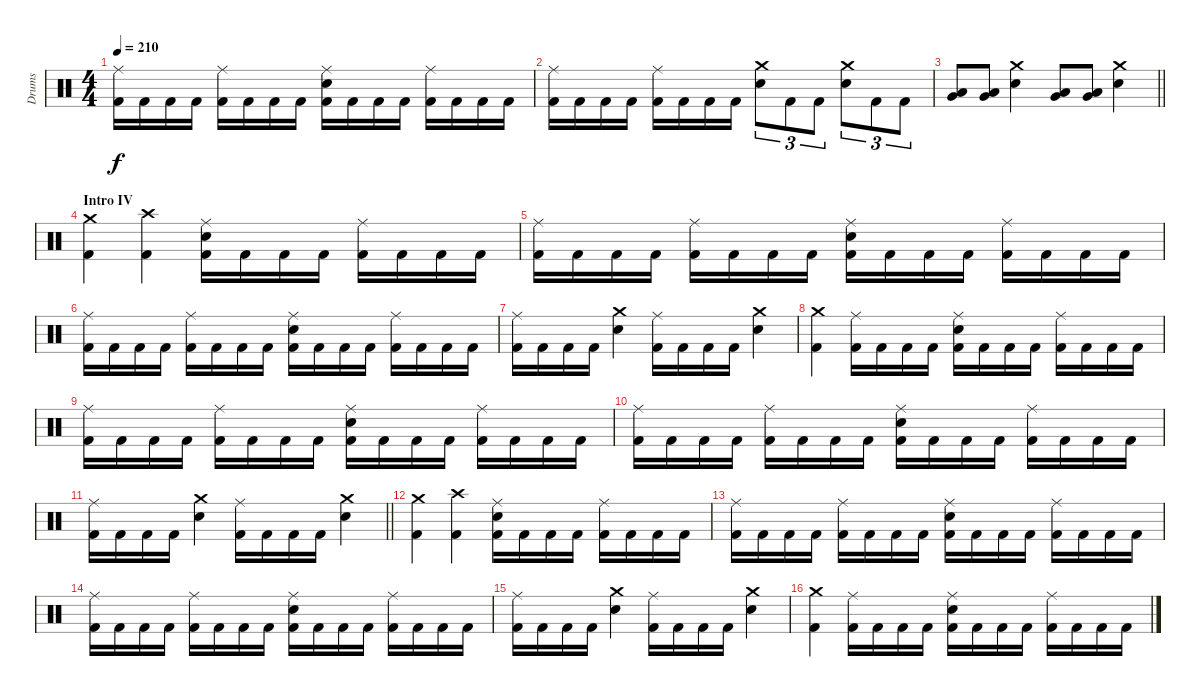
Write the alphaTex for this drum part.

\track ("Drums" "Drums") {instrument percussion}
\staff {score}
\articulation defaults
\ts (4 4)
\tempo 210
\clef neutral
\ks c
("Ride (middle)" "Kick (hit) 2").16{dy f} "Kick (hit) 2".16 "Kick (hit) 2".16 "Kick (hit) 2".16 ("Ride (middle)" "Kick (hit) 2").16 "Kick (hit) 2".16 "Kick (hit) 2".16 "Kick (hit) 2".16 ("Ride (middle)" "Snare (hit) 2" "Kick (hit) 2").16 "Kick (hit) 2".16 "Kick (hit) 2".16 "Kick (hit) 2".16 ("Ride (middle)" "Kick (hit) 2").16 "Kick (hit) 2".16 "Kick (hit) 2".16 "Kick (hit) 2".16 |
("Ride (middle)" "Kick (hit) 2").16 "Kick (hit) 2".16 "Kick (hit) 2".16 "Kick (hit) 2".16 ("Ride (middle)" "Kick (hit) 2").16 "Kick (hit) 2".16 "Kick (hit) 2".16 "Kick (hit) 2".16 ("Crash medium (hit)" "Snare (hit) 2").8{tu (3 2)} "Kick (hit) 2".8{tu (3 2)} "Kick (hit) 2".8{tu (3 2)} ("Crash medium (hit)" "Snare (hit) 2").8{tu (3 2)} "Kick (hit) 2".8{tu (3 2)} "Kick (hit) 2".8{tu (3 2)} |
\barLineRight lightlight
("Very Low Tom (hit)" "Low Tom (hit)").8 ("Very Low Tom (hit)" "Low Tom (hit)").8 ("Crash medium (hit)" "Snare (hit) 2").4 ("Very Low Tom (hit)" "Low Tom (hit)").8 ("Very Low Tom (hit)" "Low Tom (hit)").8 ("Crash medium (hit)" "Snare (hit) 2").4 |
\section ("" "Intro IV")
("Crash medium (hit)" "Kick (hit) 2").4 ("Crash high (hit)" "Kick (hit) 2").4 ("Ride (middle)" "Snare (hit) 2" "Kick (hit) 2").16 "Kick (hit) 2".16 "Kick (hit) 2".16 "Kick (hit) 2".16 ("Ride (middle)" "Kick (hit) 2").16 "Kick (hit) 2".16 "Kick (hit) 2".16 "Kick (hit) 2".16 |
("Ride (middle)" "Kick (hit) 2").16 "Kick (hit) 2".16 "Kick (hit) 2".16 "Kick (hit) 2".16 ("Ride (middle)" "Kick (hit) 2").16 "Kick (hit) 2".16 "Kick (hit) 2".16 "Kick (hit) 2".16 ("Ride (middle)" "Snare (hit) 2" "Kick (hit) 2").16 "Kick (hit) 2".16 "Kick (hit) 2".16 "Kick (hit) 2".16 ("Ride (middle)" "Kick (hit) 2").16 "Kick (hit) 2".16 "Kick (hit) 2".16 "Kick (hit) 2".16 |
("Ride (middle)" "Kick (hit) 2").16 "Kick (hit) 2".16 "Kick (hit) 2".16 "Kick (hit) 2".16 ("Ride (middle)" "Kick (hit) 2").16 "Kick (hit) 2".16 "Kick (hit) 2".16 "Kick (hit) 2".16 ("Ride (middle)" "Snare (hit) 2" "Kick (hit) 2").16 "Kick (hit) 2".16 "Kick (hit) 2".16 "Kick (hit) 2".16 ("Ride (middle)" "Kick (hit) 2").16 "Kick (hit) 2".16 "Kick (hit) 2".16 "Kick (hit) 2".16 |
("Ride (middle)" "Kick (hit) 2").16 "Kick (hit) 2".16 "Kick (hit) 2".16 "Kick (hit) 2".16 ("Crash medium (hit)" "Snare (hit) 2").4 ("Ride (middle)" "Kick (hit) 2").16 "Kick (hit) 2".16 "Kick (hit) 2".16 "Kick (hit) 2".16 ("Crash medium (hit)" "Snare (hit) 2").4 |
("Crash medium (hit)" "Kick (hit) 2").4 ("Ride (middle)" "Kick (hit) 2").16 "Kick (hit) 2".16 "Kick (hit) 2".16 "Kick (hit) 2".16 ("Ride (middle)" "Snare (hit) 2" "Kick (hit) 2").16 "Kick (hit) 2".16 "Kick (hit) 2".16 "Kick (hit) 2".16 ("Ride (middle)" "Kick (hit) 2").16 "Kick (hit) 2".16 "Kick (hit) 2".16 "Kick (hit) 2".16 |
("Ride (middle)" "Kick (hit) 2").16 "Kick (hit) 2".16 "Kick (hit) 2".16 "Kick (hit) 2".16 ("Ride (middle)" "Kick (hit) 2").16 "Kick (hit) 2".16 "Kick (hit) 2".16 "Kick (hit) 2".16 ("Ride (middle)" "Snare (hit) 2" "Kick (hit) 2").16 "Kick (hit) 2".16 "Kick (hit) 2".16 "Kick (hit) 2".16 ("Ride (middle)" "Kick (hit) 2").16 "Kick (hit) 2".16 "Kick (hit) 2".16 "Kick (hit) 2".16 |
("Ride (middle)" "Kick (hit) 2").16 "Kick (hit) 2".16 "Kick (hit) 2".16 "Kick (hit) 2".16 ("Ride (middle)" "Kick (hit) 2").16 "Kick (hit) 2".16 "Kick (hit) 2".16 "Kick (hit) 2".16 ("Ride (middle)" "Snare (hit) 2" "Kick (hit) 2").16 "Kick (hit) 2".16 "Kick (hit) 2".16 "Kick (hit) 2".16 ("Ride (middle)" "Kick (hit) 2").16 "Kick (hit) 2".16 "Kick (hit) 2".16 "Kick (hit) 2".16 |
\barLineRight lightlight
("Ride (middle)" "Kick (hit) 2").16 "Kick (hit) 2".16 "Kick (hit) 2".16 "Kick (hit) 2".16 ("Crash medium (hit)" "Snare (hit) 2").4 ("Ride (middle)" "Kick (hit) 2").16 "Kick (hit) 2".16 "Kick (hit) 2".16 "Kick (hit) 2".16 ("Crash medium (hit)" "Snare (hit) 2").4 |
("Crash medium (hit)" "Kick (hit) 2").4 ("Crash high (hit)" "Kick (hit) 2").4 ("Ride (middle)" "Snare (hit) 2" "Kick (hit) 2").16 "Kick (hit) 2".16 "Kick (hit) 2".16 "Kick (hit) 2".16 ("Ride (middle)" "Kick (hit) 2").16 "Kick (hit) 2".16 "Kick (hit) 2".16 "Kick (hit) 2".16 |
("Ride (middle)" "Kick (hit) 2").16 "Kick (hit) 2".16 "Kick (hit) 2".16 "Kick (hit) 2".16 ("Ride (middle)" "Kick (hit) 2").16 "Kick (hit) 2".16 "Kick (hit) 2".16 "Kick (hit) 2".16 ("Ride (middle)" "Snare (hit) 2" "Kick (hit) 2").16 "Kick (hit) 2".16 "Kick (hit) 2".16 "Kick (hit) 2".16 ("Ride (middle)" "Kick (hit) 2").16 "Kick (hit) 2".16 "Kick (hit) 2".16 "Kick (hit) 2".16 |
("Ride (middle)" "Kick (hit) 2").16 "Kick (hit) 2".16 "Kick (hit) 2".16 "Kick (hit) 2".16 ("Ride (middle)" "Kick (hit) 2").16 "Kick (hit) 2".16 "Kick (hit) 2".16 "Kick (hit) 2".16 ("Ride (middle)" "Snare (hit) 2" "Kick (hit) 2").16 "Kick (hit) 2".16 "Kick (hit) 2".16 "Kick (hit) 2".16 ("Ride (middle)" "Kick (hit) 2").16 "Kick (hit) 2".16 "Kick (hit) 2".16 "Kick (hit) 2".16 |
("Ride (middle)" "Kick (hit) 2").16 "Kick (hit) 2".16 "Kick (hit) 2".16 "Kick (hit) 2".16 ("Crash medium (hit)" "Snare (hit) 2").4 ("Ride (middle)" "Kick (hit) 2").16 "Kick (hit) 2".16 "Kick (hit) 2".16 "Kick (hit) 2".16 ("Crash medium (hit)" "Snare (hit) 2").4 |
("Crash medium (hit)" "Kick (hit) 2").4 ("Ride (middle)" "Kick (hit) 2").16 "Kick (hit) 2".16 "Kick (hit) 2".16 "Kick (hit) 2".16 ("Ride (middle)" "Snare (hit) 2" "Kick (hit) 2").16 "Kick (hit) 2".16 "Kick (hit) 2".16 "Kick (hit) 2".16 ("Ride (middle)" "Kick (hit) 2").16 "Kick (hit) 2".16 "Kick (hit) 2".16 "Kick (hit) 2".16
